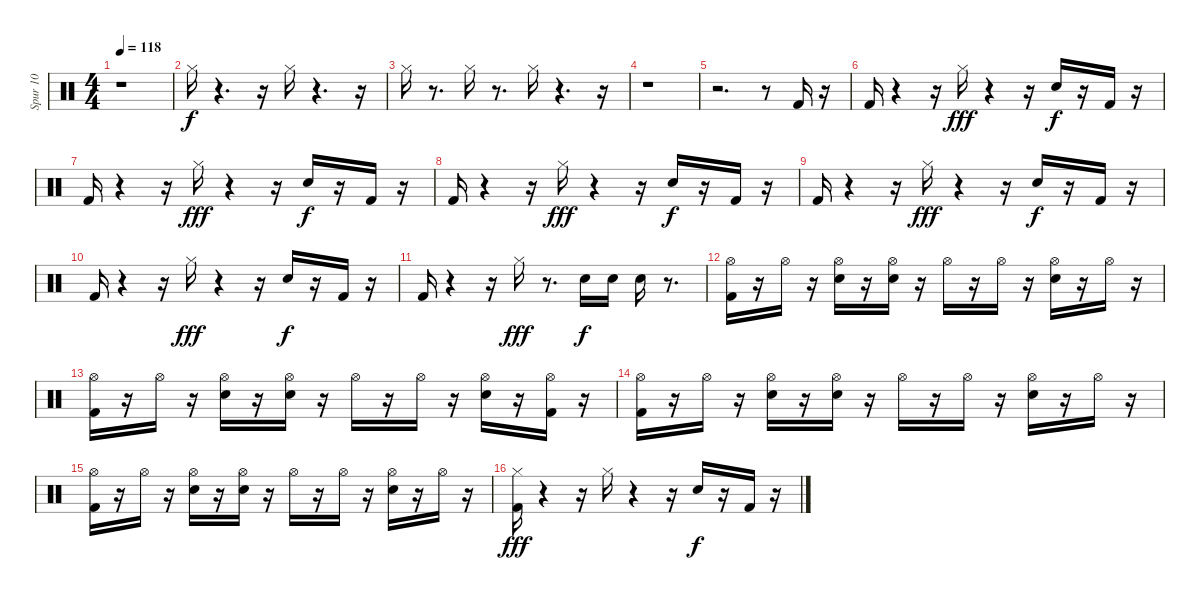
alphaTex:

\track ("Spur 10" "Spur 10") {instrument percussion}
\staff {score}
\articulation defaults
\ts (4 4)
\tempo 118
\clef neutral
\ks c
r.1{dy f} |
"Hi-Hat (closed)".16 r.4{d} r.16 "Hi-Hat (closed)".16 r.4{d} r.16 |
"Hi-Hat (closed)".16 r.8{d} "Hi-Hat (closed)".16 r.8{d} "Hi-Hat (closed)".16 r.4{d} r.16 |
r.1 |
r.2{d} r.8 "Kick (hit) 2".16 r.16 |
"Kick (hit) 2".16 r.4 r.16 "Hi-Hat (closed)".16{dy fff} r.4 r.16 "Snare (hit) 2".16{dy f} r.16 "Kick (hit) 2".16 r.16 |
"Kick (hit) 2".16 r.4 r.16 "Hi-Hat (closed)".16{dy fff} r.4 r.16 "Snare (hit) 2".16{dy f} r.16 "Kick (hit) 2".16 r.16 |
"Kick (hit) 2".16 r.4 r.16 "Hi-Hat (closed)".16{dy fff} r.4 r.16 "Snare (hit) 2".16{dy f} r.16 "Kick (hit) 2".16 r.16 |
"Kick (hit) 2".16 r.4 r.16 "Hi-Hat (closed)".16{dy fff} r.4 r.16 "Snare (hit) 2".16{dy f} r.16 "Kick (hit) 2".16 r.16 |
"Kick (hit) 2".16 r.4 r.16 "Hi-Hat (closed)".16{dy fff} r.4 r.16 "Snare (hit) 2".16{dy f} r.16 "Kick (hit) 2".16 r.16 |
"Kick (hit) 2".16 r.4 r.16 "Hi-Hat (closed)".16{dy fff} r.8{d} "Snare (hit) 2".16{dy f} "Snare (hit) 2".16 "Snare (hit) 2".16 r.8{d} |
("Hi-Hat (open)" "Kick (hit) 2").16 r.16 "Hi-Hat (open)".16 r.16 ("Hi-Hat (open)" "Snare (hit) 2").16 r.16 ("Hi-Hat (open)" "Snare (hit) 2").16 r.16 "Hi-Hat (open)".16 r.16 "Hi-Hat (open)".16 r.16 ("Hi-Hat (open)" "Snare (hit) 2").16 r.16 "Hi-Hat (open)".16 r.16 |
("Hi-Hat (open)" "Kick (hit) 2").16 r.16 "Hi-Hat (open)".16 r.16 ("Hi-Hat (open)" "Snare (hit) 2").16 r.16 ("Hi-Hat (open)" "Snare (hit) 2").16 r.16 "Hi-Hat (open)".16 r.16 "Hi-Hat (open)".16 r.16 ("Hi-Hat (open)" "Snare (hit) 2").16 r.16 ("Hi-Hat (open)" "Kick (hit) 2").16 r.16 |
("Hi-Hat (open)" "Kick (hit) 2").16 r.16 "Hi-Hat (open)".16 r.16 ("Hi-Hat (open)" "Snare (hit) 2").16 r.16 ("Hi-Hat (open)" "Snare (hit) 2").16 r.16 "Hi-Hat (open)".16 r.16 "Hi-Hat (open)".16 r.16 ("Hi-Hat (open)" "Snare (hit) 2").16 r.16 "Hi-Hat (open)".16 r.16 |
("Hi-Hat (open)" "Kick (hit) 2").16 r.16 "Hi-Hat (open)".16 r.16 ("Hi-Hat (open)" "Snare (hit) 2").16 r.16 ("Hi-Hat (open)" "Snare (hit) 2").16 r.16 "Hi-Hat (open)".16 r.16 "Hi-Hat (open)".16 r.16 ("Hi-Hat (open)" "Snare (hit) 2").16 r.16 "Hi-Hat (open)".16 r.16 |
("Hi-Hat (closed)" "Kick (hit) 2").16{dy fff} r.4 r.16 "Hi-Hat (closed)".16 r.4 r.16 "Snare (hit) 2".16{dy f} r.16 "Kick (hit) 2".16 r.16
